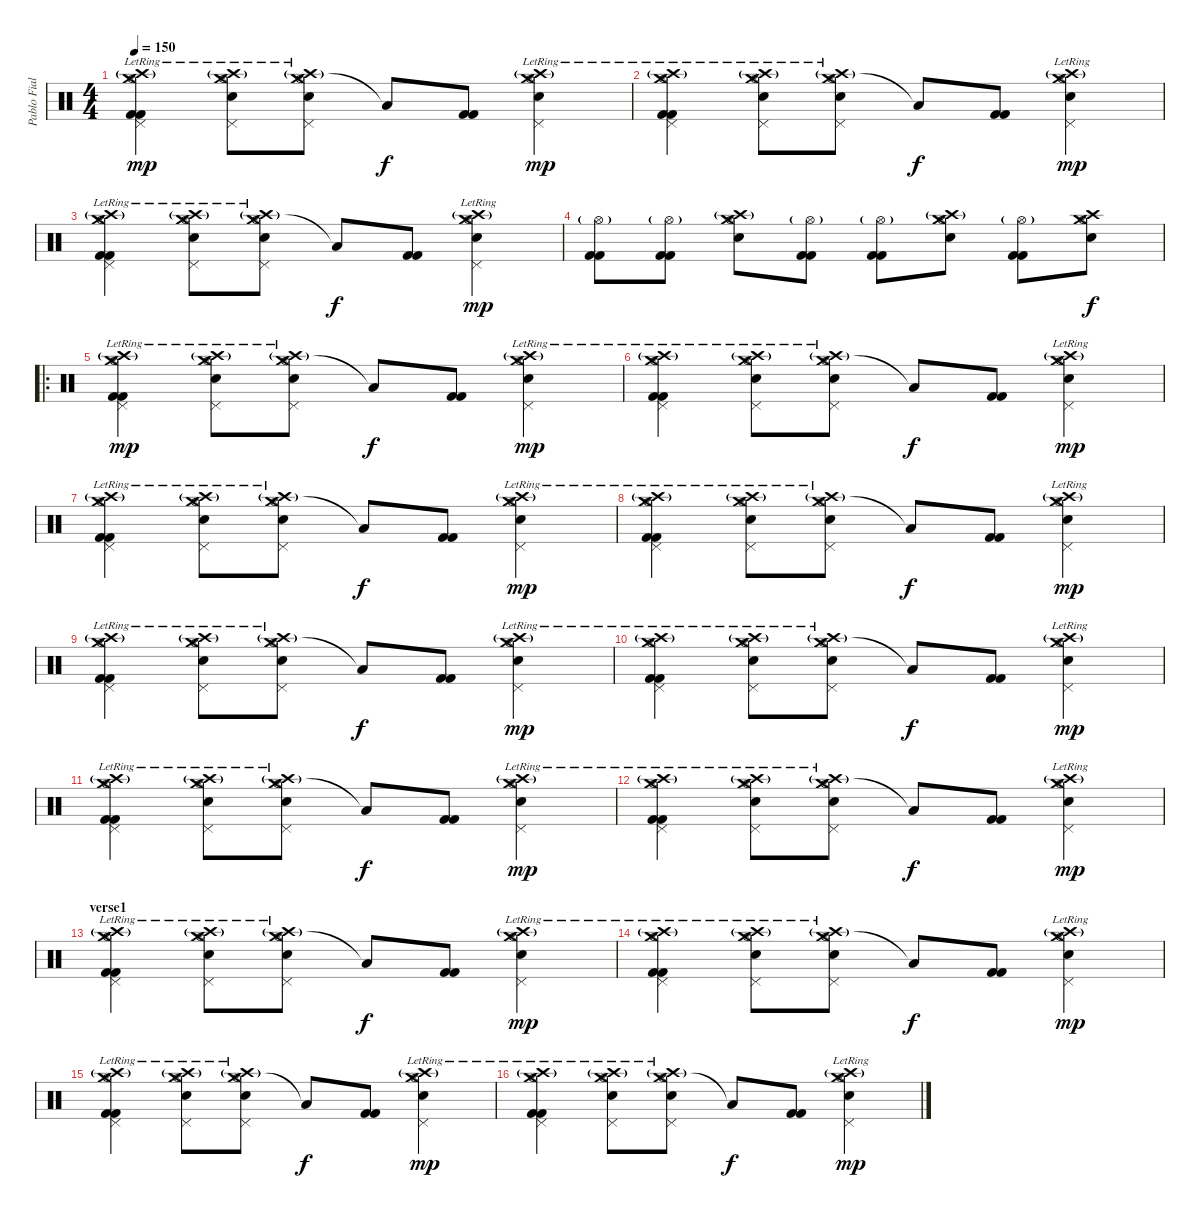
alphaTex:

\track ("Pablo Fiallo" "Pablo Fial") {instrument percussion}
\staff {score}
\articulation defaults
\ts (4 4)
\tempo 150
\clef neutral
\ks c
("Crash medium (hit)" "Crash high (hit)"{g} "Pedal Hi-Hat (hit)" "Hi-Hat (open)"{lr} "Kick (hit) 2" "Kick (hit) 2").4{dy mp} ("Crash medium (hit)" "Crash high (hit)"{g} "Pedal Hi-Hat (hit)" "Hi-Hat (open)"{lr} "Snare (hit) 2").8 ("Crash medium (hit)" "Crash high (hit)"{g} "Pedal Hi-Hat (hit)" "Hi-Hat (open)"{lr} "Snare (hit) 2").8 "Low Floor Tom (hit)"{t}.8{dy f} ("Kick (hit) 2" "Kick (hit) 2").8 ("Crash medium (hit)" "Crash high (hit)"{g} "Pedal Hi-Hat (hit)" "Hi-Hat (open)"{lr} "Snare (hit) 2").4{dy mp} |
("Crash medium (hit)" "Crash high (hit)"{g} "Pedal Hi-Hat (hit)" "Hi-Hat (open)"{lr} "Kick (hit) 2" "Kick (hit) 2").4 ("Crash medium (hit)" "Crash high (hit)"{g} "Pedal Hi-Hat (hit)" "Hi-Hat (open)"{lr} "Snare (hit) 2").8 ("Crash medium (hit)" "Crash high (hit)"{g} "Pedal Hi-Hat (hit)" "Hi-Hat (open)"{lr} "Snare (hit) 2").8 "Low Floor Tom (hit)"{t}.8{dy f} ("Kick (hit) 2" "Kick (hit) 2").8 ("Crash medium (hit)" "Crash high (hit)"{g} "Pedal Hi-Hat (hit)" "Hi-Hat (open)"{lr} "Snare (hit) 2").4{dy mp} |
("Crash medium (hit)" "Crash high (hit)"{g} "Pedal Hi-Hat (hit)" "Hi-Hat (open)"{lr} "Kick (hit) 2" "Kick (hit) 2").4 ("Crash medium (hit)" "Crash high (hit)"{g} "Pedal Hi-Hat (hit)" "Hi-Hat (open)"{lr} "Snare (hit) 2").8 ("Crash medium (hit)" "Crash high (hit)"{g} "Pedal Hi-Hat (hit)" "Hi-Hat (open)"{lr} "Snare (hit) 2").8 "Low Floor Tom (hit)"{t}.8{dy f} ("Kick (hit) 2" "Kick (hit) 2").8 ("Crash medium (hit)" "Crash high (hit)"{g} "Pedal Hi-Hat (hit)" "Hi-Hat (open)"{lr} "Snare (hit) 2").4{dy mp} |
("Hi-Hat (open)"{g} "Kick (hit) 2" "Kick (hit) 2").8 ("Hi-Hat (open)"{g} "Kick (hit) 2" "Kick (hit) 2").8 ("Crash high (hit)"{g} "Hi-Hat (open)" "Crash medium (hit)" "Snare (hit) 2").8 ("Hi-Hat (open)"{g} "Kick (hit) 2" "Kick (hit) 2").8 ("Hi-Hat (open)"{g} "Kick (hit) 2" "Kick (hit) 2").8 ("Crash high (hit)"{g} "Hi-Hat (open)" "Crash medium (hit)" "Snare (hit) 2").8 ("Hi-Hat (open)"{g} "Kick (hit) 2" "Kick (hit) 2").8 ("Crash high (hit)" "Hi-Hat (open)" "Crash medium (hit)" "Snare (hit) 2").8{dy f} |
\ro
("Crash medium (hit)" "Crash high (hit)"{g} "Pedal Hi-Hat (hit)" "Hi-Hat (open)"{lr} "Kick (hit) 2" "Kick (hit) 2").4{dy mp} ("Crash medium (hit)" "Crash high (hit)"{g} "Pedal Hi-Hat (hit)" "Hi-Hat (open)"{lr} "Snare (hit) 2").8 ("Crash medium (hit)" "Crash high (hit)"{g} "Pedal Hi-Hat (hit)" "Hi-Hat (open)"{lr} "Snare (hit) 2").8 "Low Floor Tom (hit)"{t}.8{dy f} ("Kick (hit) 2" "Kick (hit) 2").8 ("Crash medium (hit)" "Crash high (hit)"{g} "Pedal Hi-Hat (hit)" "Hi-Hat (open)"{lr} "Snare (hit) 2").4{dy mp} |
("Crash medium (hit)" "Crash high (hit)"{g} "Pedal Hi-Hat (hit)" "Hi-Hat (open)"{lr} "Kick (hit) 2" "Kick (hit) 2").4 ("Crash medium (hit)" "Crash high (hit)"{g} "Pedal Hi-Hat (hit)" "Hi-Hat (open)"{lr} "Snare (hit) 2").8 ("Crash medium (hit)" "Crash high (hit)"{g} "Pedal Hi-Hat (hit)" "Hi-Hat (open)"{lr} "Snare (hit) 2").8 "Low Floor Tom (hit)"{t}.8{dy f} ("Kick (hit) 2" "Kick (hit) 2").8 ("Crash medium (hit)" "Crash high (hit)"{g} "Pedal Hi-Hat (hit)" "Hi-Hat (open)"{lr} "Snare (hit) 2").4{dy mp} |
("Crash medium (hit)" "Crash high (hit)"{g} "Pedal Hi-Hat (hit)" "Hi-Hat (open)"{lr} "Kick (hit) 2" "Kick (hit) 2").4 ("Crash medium (hit)" "Crash high (hit)"{g} "Pedal Hi-Hat (hit)" "Hi-Hat (open)"{lr} "Snare (hit) 2").8 ("Crash medium (hit)" "Crash high (hit)"{g} "Pedal Hi-Hat (hit)" "Hi-Hat (open)"{lr} "Snare (hit) 2").8 "Low Floor Tom (hit)"{t}.8{dy f} ("Kick (hit) 2" "Kick (hit) 2").8 ("Crash medium (hit)" "Crash high (hit)"{g} "Pedal Hi-Hat (hit)" "Hi-Hat (open)"{lr} "Snare (hit) 2").4{dy mp} |
("Crash medium (hit)" "Crash high (hit)"{g} "Pedal Hi-Hat (hit)" "Hi-Hat (open)"{lr} "Kick (hit) 2" "Kick (hit) 2").4 ("Crash medium (hit)" "Crash high (hit)"{g} "Pedal Hi-Hat (hit)" "Hi-Hat (open)"{lr} "Snare (hit) 2").8 ("Crash medium (hit)" "Crash high (hit)"{g} "Pedal Hi-Hat (hit)" "Hi-Hat (open)"{lr} "Snare (hit) 2").8 "Low Floor Tom (hit)"{t}.8{dy f} ("Kick (hit) 2" "Kick (hit) 2").8 ("Crash medium (hit)" "Crash high (hit)"{g} "Pedal Hi-Hat (hit)" "Hi-Hat (open)"{lr} "Snare (hit) 2").4{dy mp} |
("Crash medium (hit)" "Crash high (hit)"{g} "Pedal Hi-Hat (hit)" "Hi-Hat (open)"{lr} "Kick (hit) 2" "Kick (hit) 2").4 ("Crash medium (hit)" "Crash high (hit)"{g} "Pedal Hi-Hat (hit)" "Hi-Hat (open)"{lr} "Snare (hit) 2").8 ("Crash medium (hit)" "Crash high (hit)"{g} "Pedal Hi-Hat (hit)" "Hi-Hat (open)"{lr} "Snare (hit) 2").8 "Low Floor Tom (hit)"{t}.8{dy f} ("Kick (hit) 2" "Kick (hit) 2").8 ("Crash medium (hit)" "Crash high (hit)"{g} "Pedal Hi-Hat (hit)" "Hi-Hat (open)"{lr} "Snare (hit) 2").4{dy mp} |
("Crash medium (hit)" "Crash high (hit)"{g} "Pedal Hi-Hat (hit)" "Hi-Hat (open)"{lr} "Kick (hit) 2" "Kick (hit) 2").4 ("Crash medium (hit)" "Crash high (hit)"{g} "Pedal Hi-Hat (hit)" "Hi-Hat (open)"{lr} "Snare (hit) 2").8 ("Crash medium (hit)" "Crash high (hit)"{g} "Pedal Hi-Hat (hit)" "Hi-Hat (open)"{lr} "Snare (hit) 2").8 "Low Floor Tom (hit)"{t}.8{dy f} ("Kick (hit) 2" "Kick (hit) 2").8 ("Crash medium (hit)" "Crash high (hit)"{g} "Pedal Hi-Hat (hit)" "Hi-Hat (open)"{lr} "Snare (hit) 2").4{dy mp} |
("Crash medium (hit)" "Crash high (hit)"{g} "Pedal Hi-Hat (hit)" "Hi-Hat (open)"{lr} "Kick (hit) 2" "Kick (hit) 2").4 ("Crash medium (hit)" "Crash high (hit)"{g} "Pedal Hi-Hat (hit)" "Hi-Hat (open)"{lr} "Snare (hit) 2").8 ("Crash medium (hit)" "Crash high (hit)"{g} "Pedal Hi-Hat (hit)" "Hi-Hat (open)"{lr} "Snare (hit) 2").8 "Low Floor Tom (hit)"{t}.8{dy f} ("Kick (hit) 2" "Kick (hit) 2").8 ("Crash medium (hit)" "Crash high (hit)"{g} "Pedal Hi-Hat (hit)" "Hi-Hat (open)"{lr} "Snare (hit) 2").4{dy mp} |
("Crash medium (hit)" "Crash high (hit)"{g} "Pedal Hi-Hat (hit)" "Hi-Hat (open)"{lr} "Kick (hit) 2" "Kick (hit) 2").4 ("Crash medium (hit)" "Crash high (hit)"{g} "Pedal Hi-Hat (hit)" "Hi-Hat (open)"{lr} "Snare (hit) 2").8 ("Crash medium (hit)" "Crash high (hit)"{g} "Pedal Hi-Hat (hit)" "Hi-Hat (open)"{lr} "Snare (hit) 2").8 "Low Floor Tom (hit)"{t}.8{dy f} ("Kick (hit) 2" "Kick (hit) 2").8 ("Crash medium (hit)" "Crash high (hit)"{g} "Pedal Hi-Hat (hit)" "Hi-Hat (open)"{lr} "Snare (hit) 2").4{dy mp} |
\section ("" "verse1")
("Crash medium (hit)" "Crash high (hit)"{g} "Pedal Hi-Hat (hit)" "Hi-Hat (open)"{lr} "Kick (hit) 2" "Kick (hit) 2").4 ("Crash medium (hit)" "Crash high (hit)"{g} "Pedal Hi-Hat (hit)" "Hi-Hat (open)"{lr} "Snare (hit) 2").8 ("Crash medium (hit)" "Crash high (hit)"{g} "Pedal Hi-Hat (hit)" "Hi-Hat (open)"{lr} "Snare (hit) 2").8 "Low Floor Tom (hit)"{t}.8{dy f} ("Kick (hit) 2" "Kick (hit) 2").8 ("Crash medium (hit)" "Crash high (hit)"{g} "Pedal Hi-Hat (hit)" "Hi-Hat (open)"{lr} "Snare (hit) 2").4{dy mp} |
("Crash medium (hit)" "Crash high (hit)"{g} "Pedal Hi-Hat (hit)" "Hi-Hat (open)"{lr} "Kick (hit) 2" "Kick (hit) 2").4 ("Crash medium (hit)" "Crash high (hit)"{g} "Pedal Hi-Hat (hit)" "Hi-Hat (open)"{lr} "Snare (hit) 2").8 ("Crash medium (hit)" "Crash high (hit)"{g} "Pedal Hi-Hat (hit)" "Hi-Hat (open)"{lr} "Snare (hit) 2").8 "Low Floor Tom (hit)"{t}.8{dy f} ("Kick (hit) 2" "Kick (hit) 2").8 ("Crash medium (hit)" "Crash high (hit)"{g} "Pedal Hi-Hat (hit)" "Hi-Hat (open)"{lr} "Snare (hit) 2").4{dy mp} |
("Crash medium (hit)" "Crash high (hit)"{g} "Pedal Hi-Hat (hit)" "Hi-Hat (open)"{lr} "Kick (hit) 2" "Kick (hit) 2").4 ("Crash medium (hit)" "Crash high (hit)"{g} "Pedal Hi-Hat (hit)" "Hi-Hat (open)"{lr} "Snare (hit) 2").8 ("Crash medium (hit)" "Crash high (hit)"{g} "Pedal Hi-Hat (hit)" "Hi-Hat (open)"{lr} "Snare (hit) 2").8 "Low Floor Tom (hit)"{t}.8{dy f} ("Kick (hit) 2" "Kick (hit) 2").8 ("Crash medium (hit)" "Crash high (hit)"{g} "Pedal Hi-Hat (hit)" "Hi-Hat (open)"{lr} "Snare (hit) 2").4{dy mp} |
("Crash medium (hit)" "Crash high (hit)"{g} "Pedal Hi-Hat (hit)" "Hi-Hat (open)"{lr} "Kick (hit) 2" "Kick (hit) 2").4 ("Crash medium (hit)" "Crash high (hit)"{g} "Pedal Hi-Hat (hit)" "Hi-Hat (open)"{lr} "Snare (hit) 2").8 ("Crash medium (hit)" "Crash high (hit)"{g} "Pedal Hi-Hat (hit)" "Hi-Hat (open)"{lr} "Snare (hit) 2").8 "Low Floor Tom (hit)"{t}.8{dy f} ("Kick (hit) 2" "Kick (hit) 2").8 ("Crash medium (hit)" "Crash high (hit)"{g} "Pedal Hi-Hat (hit)" "Hi-Hat (open)"{lr} "Snare (hit) 2").4{dy mp}
